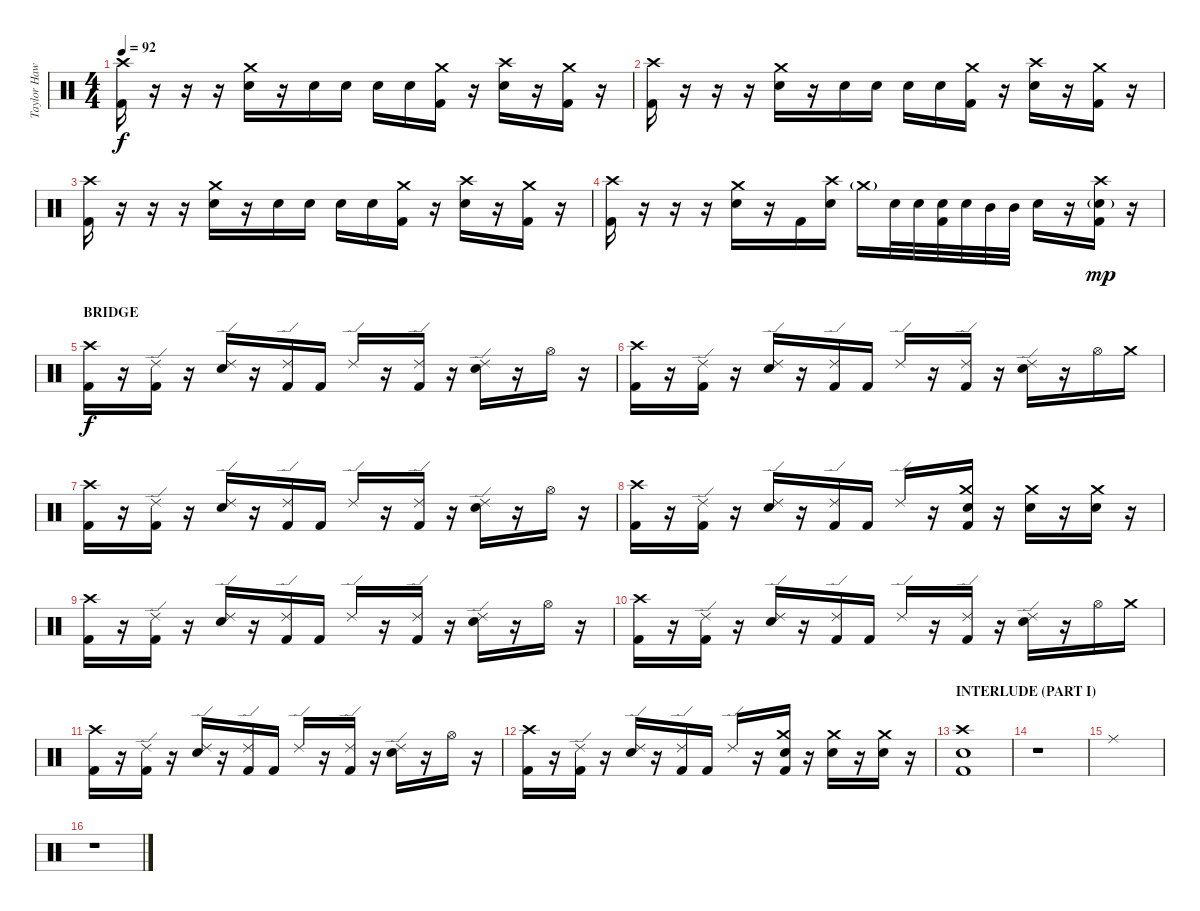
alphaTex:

\track ("Taylor Hawkins (Drums)" "Taylor Haw") {instrument percussion}
\staff {score}
\articulation defaults
\ts (4 4)
\tempo 92
\clef neutral
\ks c
("Crash high (hit)" "Kick (hit) 2").16{dy f} r.16 r.16 r.16 ("Crash medium (hit)" "Electric Snare (hit)").16 r.16 "Electric Snare (hit)".16 "Electric Snare (hit)".16 "Electric Snare (hit)".16 "Electric Snare (hit)".16 ("Crash medium (hit)" "Kick (hit) 2").16 r.16 ("Crash high (hit)" "Electric Snare (hit)").16 r.16 ("Crash medium (hit)" "Kick (hit) 2").16 r.16 |
("Crash high (hit)" "Kick (hit) 2").16 r.16 r.16 r.16 ("Crash medium (hit)" "Electric Snare (hit)").16 r.16 "Electric Snare (hit)".16 "Electric Snare (hit)".16 "Electric Snare (hit)".16 "Electric Snare (hit)".16 ("Crash medium (hit)" "Kick (hit) 2").16 r.16 ("Crash high (hit)" "Electric Snare (hit)").16 r.16 ("Crash medium (hit)" "Kick (hit) 2").16 r.16 |
("Crash high (hit)" "Kick (hit) 2").16 r.16 r.16 r.16 ("Crash medium (hit)" "Electric Snare (hit)").16 r.16 "Electric Snare (hit)".16 "Electric Snare (hit)".16 "Electric Snare (hit)".16 "Electric Snare (hit)".16 ("Crash medium (hit)" "Kick (hit) 2").16 r.16 ("Crash high (hit)" "Electric Snare (hit)").16 r.16 ("Crash medium (hit)" "Kick (hit) 2").16 r.16 |
("Crash high (hit)" "Kick (hit) 2").16 r.16 r.16 r.16 ("Crash medium (hit)" "Electric Snare (hit)").16 r.16 "Kick (hit) 2".16 ("Crash high (hit)" "Electric Snare (hit)").16 "Crash medium (hit)"{g}.16 "Electric Snare (hit)".32 "Electric Snare (hit)".32 ("Electric Snare (hit)" "Kick (hit) 2").32 "Electric Snare (hit)".32 "Mid Tom (hit)".32 "Mid Tom (hit)".32 "Electric Snare (hit)".16 r.16 ("Crash high (hit)" "Electric Snare (hit)"{g} "Kick (hit) 2").16{dy mp} r.16 |
\section ("" "BRIDGE")
("Crash high (hit)" "Kick (hit) 2").16{dy f} r.16 ("Ride (edge) 2" "Kick (hit) 2").16 r.16 ("Ride (edge) 2" "Electric Snare (hit)").16 r.16 ("Ride (edge) 2" "Kick (hit) 2").16 "Kick (hit) 2".16 "Ride (edge) 2".16 r.16 ("Ride (edge) 2" "Kick (hit) 2").16 r.16 ("Ride (edge) 2" "Electric Snare (hit)").16 r.16 "Hi-Hat (open)".16 r.16 |
("Crash high (hit)" "Kick (hit) 2").16 r.16 ("Ride (edge) 2" "Kick (hit) 2").16 r.16 ("Ride (edge) 2" "Electric Snare (hit)").16 r.16 ("Ride (edge) 2" "Kick (hit) 2").16 "Kick (hit) 2".16 "Ride (edge) 2".16 r.16 ("Ride (edge) 2" "Kick (hit) 2").16 r.16 ("Ride (edge) 2" "Electric Snare (hit)").16 r.16 "Hi-Hat (open)".16 "Crash medium (hit)".16 |
("Crash high (hit)" "Kick (hit) 2").16 r.16 ("Ride (edge) 2" "Kick (hit) 2").16 r.16 ("Ride (edge) 2" "Electric Snare (hit)").16 r.16 ("Ride (edge) 2" "Kick (hit) 2").16 "Kick (hit) 2".16 "Ride (edge) 2".16 r.16 ("Ride (edge) 2" "Kick (hit) 2").16 r.16 ("Ride (edge) 2" "Electric Snare (hit)").16 r.16 "Hi-Hat (open)".16 r.16 |
("Crash high (hit)" "Kick (hit) 2").16 r.16 ("Ride (edge) 2" "Kick (hit) 2").16 r.16 ("Ride (edge) 2" "Electric Snare (hit)").16 r.16 ("Ride (edge) 2" "Kick (hit) 2").16 "Kick (hit) 2".16 "Ride (edge) 2".16 r.16 ("Crash medium (hit)" "Electric Snare (hit)" "Kick (hit) 2").16 r.16 ("Crash medium (hit)" "Electric Snare (hit)").16 r.16 ("Crash medium (hit)" "Electric Snare (hit)").16 r.16 |
("Crash high (hit)" "Kick (hit) 2").16 r.16 ("Ride (edge) 2" "Kick (hit) 2").16 r.16 ("Ride (edge) 2" "Electric Snare (hit)").16 r.16 ("Ride (edge) 2" "Kick (hit) 2").16 "Kick (hit) 2".16 "Ride (edge) 2".16 r.16 ("Ride (edge) 2" "Kick (hit) 2").16 r.16 ("Ride (edge) 2" "Electric Snare (hit)").16 r.16 "Hi-Hat (open)".16 r.16 |
("Crash high (hit)" "Kick (hit) 2").16 r.16 ("Ride (edge) 2" "Kick (hit) 2").16 r.16 ("Ride (edge) 2" "Electric Snare (hit)").16 r.16 ("Ride (edge) 2" "Kick (hit) 2").16 "Kick (hit) 2".16 "Ride (edge) 2".16 r.16 ("Ride (edge) 2" "Kick (hit) 2").16 r.16 ("Ride (edge) 2" "Electric Snare (hit)").16 r.16 "Hi-Hat (open)".16 "Crash medium (hit)".16 |
("Crash high (hit)" "Kick (hit) 2").16 r.16 ("Ride (edge) 2" "Kick (hit) 2").16 r.16 ("Ride (edge) 2" "Electric Snare (hit)").16 r.16 ("Ride (edge) 2" "Kick (hit) 2").16 "Kick (hit) 2".16 "Ride (edge) 2".16 r.16 ("Ride (edge) 2" "Kick (hit) 2").16 r.16 ("Ride (edge) 2" "Electric Snare (hit)").16 r.16 "Hi-Hat (open)".16 r.16 |
("Crash high (hit)" "Kick (hit) 2").16 r.16 ("Ride (edge) 2" "Kick (hit) 2").16 r.16 ("Ride (edge) 2" "Electric Snare (hit)").16 r.16 ("Ride (edge) 2" "Kick (hit) 2").16 "Kick (hit) 2".16 "Ride (edge) 2".16 r.16 ("Crash medium (hit)" "Electric Snare (hit)" "Kick (hit) 2").16 r.16 ("Crash medium (hit)" "Electric Snare (hit)").16 r.16 ("Crash medium (hit)" "Electric Snare (hit)").16 r.16 |
\section ("" "INTERLUDE (PART I)")
("Crash high (hit)" "Electric Snare (hit)" "Kick (hit) 2").1 |
r.1 |
"Ride (middle)".1 |
r.1
